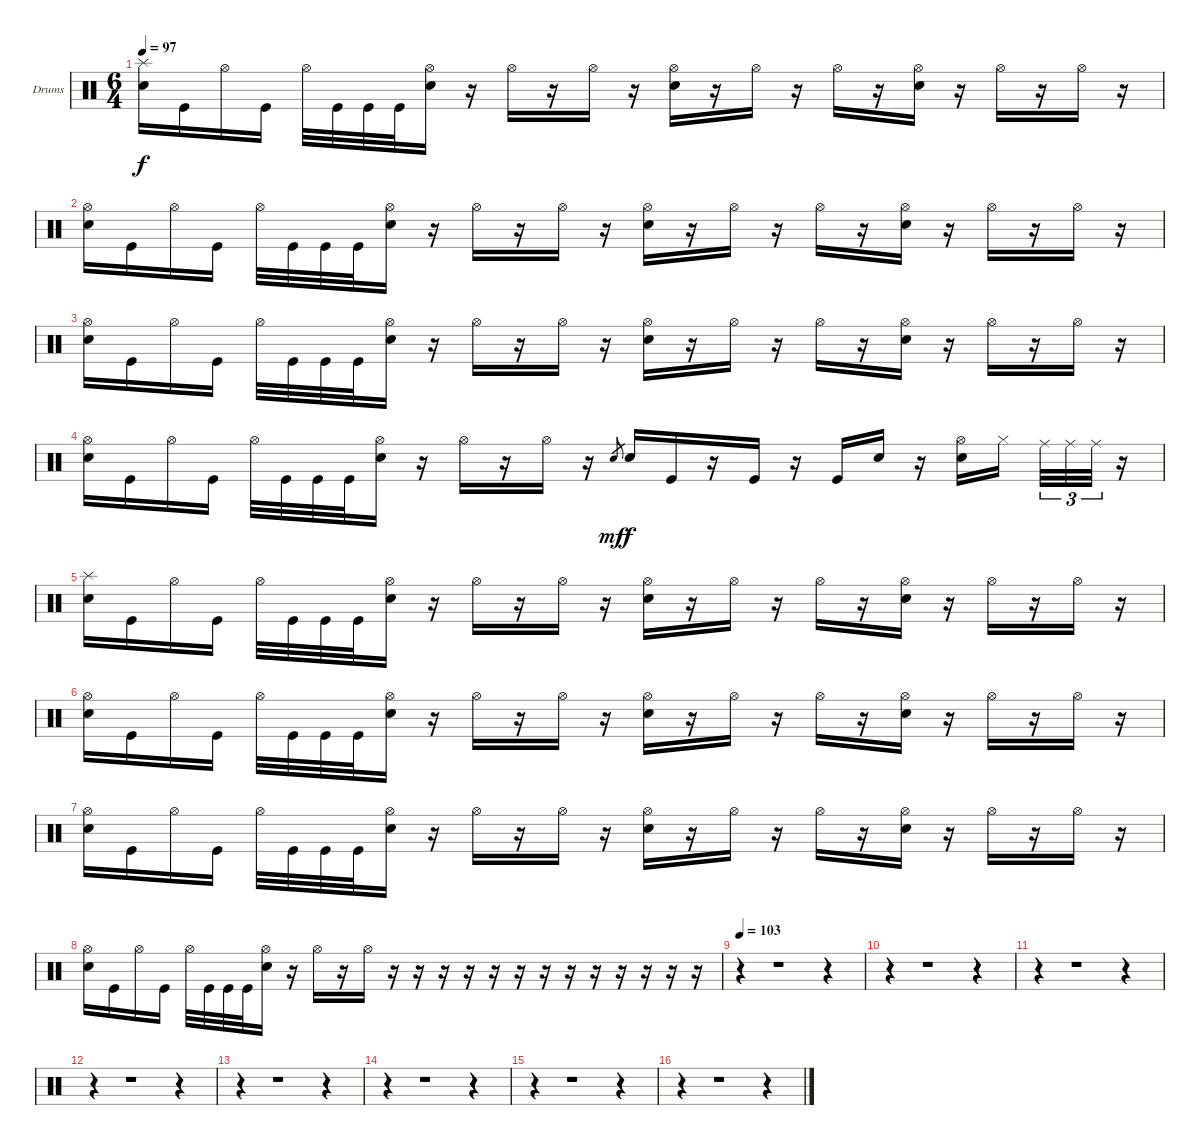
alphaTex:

\bracketExtendMode groupsimilarinstruments
\firstSystemTrackNameOrientation horizontal
\otherSystemsTrackNameOrientation horizontal
\track ("Drumkit" "Drums") {instrument percussion}
\staff {score}
\articulation defaults
\ts (6 4)
\tempo 97
\clef neutral
\ks c
("Splash (hit)" "Snare (hit) 2").16{dy f} "Kick (hit)".16 "Hi-Hat (open)".16 "Kick (hit)".16 "Hi-Hat (open)".32 "Kick (hit)".32 "Kick (hit)".32 "Kick (hit)".32 ("Hi-Hat (open)" "Snare (hit) 2").16 r.16 "Hi-Hat (open)".16 r.16 "Hi-Hat (open)".16 r.16 ("Hi-Hat (open)" "Snare (hit) 2").16 r.16 "Hi-Hat (open)".16 r.16 "Hi-Hat (open)".16 r.16 ("Hi-Hat (open)" "Snare (hit) 2").16 r.16 "Hi-Hat (open)".16 r.16 "Hi-Hat (open)".16 r.16 |
("Hi-Hat (open)" "Snare (hit) 2").16 "Kick (hit)".16 "Hi-Hat (open)".16 "Kick (hit)".16 "Hi-Hat (open)".32 "Kick (hit)".32 "Kick (hit)".32 "Kick (hit)".32 ("Hi-Hat (open)" "Snare (hit) 2").16 r.16 "Hi-Hat (open)".16 r.16 "Hi-Hat (open)".16 r.16 ("Hi-Hat (open)" "Snare (hit) 2").16 r.16 "Hi-Hat (open)".16 r.16 "Hi-Hat (open)".16 r.16 ("Hi-Hat (open)" "Snare (hit) 2").16 r.16 "Hi-Hat (open)".16 r.16 "Hi-Hat (open)".16 r.16 |
("Hi-Hat (open)" "Snare (hit) 2").16 "Kick (hit)".16 "Hi-Hat (open)".16 "Kick (hit)".16 "Hi-Hat (open)".32 "Kick (hit)".32 "Kick (hit)".32 "Kick (hit)".32 ("Hi-Hat (open)" "Snare (hit) 2").16 r.16 "Hi-Hat (open)".16 r.16 "Hi-Hat (open)".16 r.16 ("Hi-Hat (open)" "Snare (hit) 2").16 r.16 "Hi-Hat (open)".16 r.16 "Hi-Hat (open)".16 r.16 ("Hi-Hat (open)" "Snare (hit) 2").16 r.16 "Hi-Hat (open)".16 r.16 "Hi-Hat (open)".16 r.16 |
("Hi-Hat (open)" "Snare (hit) 2").16 "Kick (hit)".16 "Hi-Hat (open)".16 "Kick (hit)".16 "Hi-Hat (open)".32 "Kick (hit)".32 "Kick (hit)".32 "Kick (hit)".32 ("Hi-Hat (open)" "Snare (hit) 2").16 r.16 "Hi-Hat (open)".16 r.16 "Hi-Hat (open)".16 r.16 "Snare (hit) 2".8{gr dy mf} "Snare (hit) 2".16{dy f} "Kick (hit)".16 r.16 "Kick (hit)".16 r.16 "Kick (hit)".16 "Snare (hit) 2".16 r.16 ("Hi-Hat (open)" "Snare (hit) 2").16 "Hi-Hat (closed)".16 "Ride (middle)".32{tu (3 2)} "Ride (middle)".32{tu (3 2)} "Ride (middle)".32{tu (3 2)} r.16 |
("Splash (hit)" "Snare (hit) 2").16 "Kick (hit)".16 "Hi-Hat (open)".16 "Kick (hit)".16 "Hi-Hat (open)".32 "Kick (hit)".32 "Kick (hit)".32 "Kick (hit)".32 ("Hi-Hat (open)" "Snare (hit) 2").16 r.16 "Hi-Hat (open)".16 r.16 "Hi-Hat (open)".16 r.16 ("Hi-Hat (open)" "Snare (hit) 2").16 r.16 "Hi-Hat (open)".16 r.16 "Hi-Hat (open)".16 r.16 ("Hi-Hat (open)" "Snare (hit) 2").16 r.16 "Hi-Hat (open)".16 r.16 "Hi-Hat (open)".16 r.16 |
("Hi-Hat (open)" "Snare (hit) 2").16 "Kick (hit)".16 "Hi-Hat (open)".16 "Kick (hit)".16 "Hi-Hat (open)".32 "Kick (hit)".32 "Kick (hit)".32 "Kick (hit)".32 ("Hi-Hat (open)" "Snare (hit) 2").16 r.16 "Hi-Hat (open)".16 r.16 "Hi-Hat (open)".16 r.16 ("Hi-Hat (open)" "Snare (hit) 2").16 r.16 "Hi-Hat (open)".16 r.16 "Hi-Hat (open)".16 r.16 ("Hi-Hat (open)" "Snare (hit) 2").16 r.16 "Hi-Hat (open)".16 r.16 "Hi-Hat (open)".16 r.16 |
("Hi-Hat (open)" "Snare (hit) 2").16 "Kick (hit)".16 "Hi-Hat (open)".16 "Kick (hit)".16 "Hi-Hat (open)".32 "Kick (hit)".32 "Kick (hit)".32 "Kick (hit)".32 ("Hi-Hat (open)" "Snare (hit) 2").16 r.16 "Hi-Hat (open)".16 r.16 "Hi-Hat (open)".16 r.16 ("Hi-Hat (open)" "Snare (hit) 2").16 r.16 "Hi-Hat (open)".16 r.16 "Hi-Hat (open)".16 r.16 ("Hi-Hat (open)" "Snare (hit) 2").16 r.16 "Hi-Hat (open)".16 r.16 "Hi-Hat (open)".16 r.16 |
("Hi-Hat (open)" "Snare (hit) 2").16 "Kick (hit)".16 "Hi-Hat (open)".16 "Kick (hit)".16 "Hi-Hat (open)".32 "Kick (hit)".32 "Kick (hit)".32 "Kick (hit)".32 ("Hi-Hat (open)" "Snare (hit) 2").16 r.16 "Hi-Hat (open)".16 r.16 "Hi-Hat (open)".16 r.16 r.16 r.16 r.16 r.16 r.16 r.16 r.16 r.16 r.16 r.16 r.16 r.16 |
\tempo 103
r.4 r.1 r.4 |
r.4 r.1 r.4 |
r.4 r.1 r.4 |
r.4 r.1 r.4 |
r.4 r.1 r.4 |
r.4 r.1 r.4 |
r.4 r.1 r.4 |
r.4 r.1 r.4
